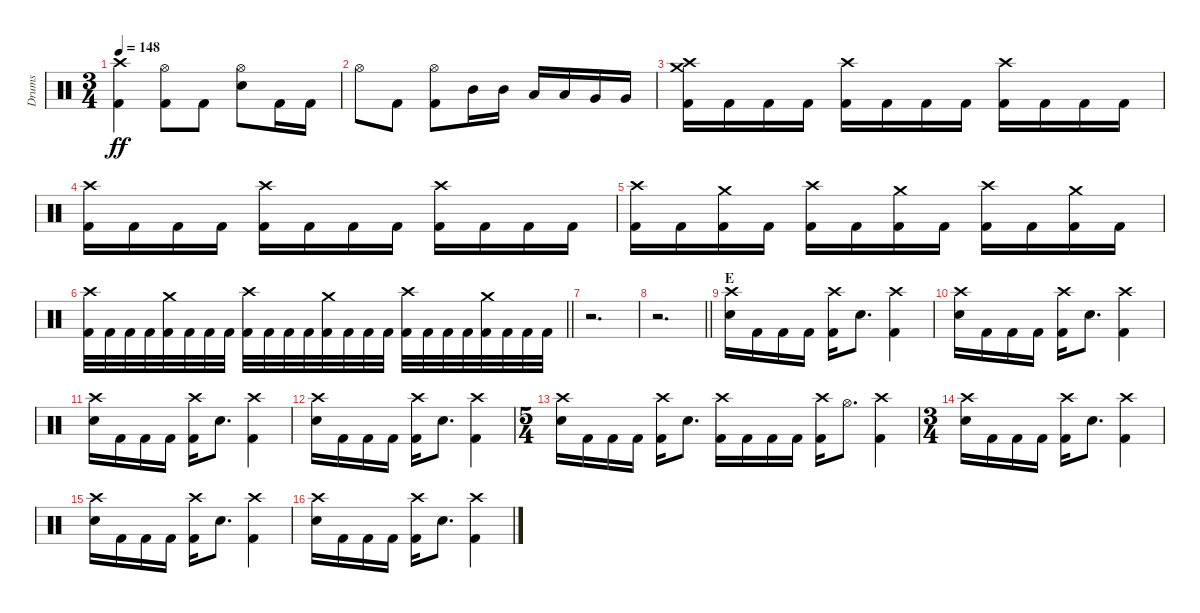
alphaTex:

\track ("Drums" "Drums") {instrument percussion}
\staff {score}
\articulation defaults
\ts (3 4)
\tempo 148
\clef neutral
\ks c
("Crash high (hit)" "Kick (hit) 2").4{dy ff} ("Hi-Hat (open)" "Kick (hit) 2").8 "Kick (hit) 2".8 ("Hi-Hat (open)" "Electric Snare (hit)").8 "Kick (hit) 2".16 "Kick (hit) 2".16 |
"Hi-Hat (open)".8 "Kick (hit) 2".8 ("Hi-Hat (open)" "Kick (hit) 2").8 "Mid Tom (hit)".16 "Mid Tom (hit)".16 "Low Tom (hit)".16 "Low Tom (hit)".16 "Very Low Tom (hit)".16 "Very Low Tom (hit)".16 |
("Crash medium (hit)" "Crash high (hit)" "Kick (hit) 2").16 "Kick (hit) 2".16 "Kick (hit) 2".16 "Kick (hit) 2".16 ("Crash high (hit)" "Kick (hit) 2").16 "Kick (hit) 2".16 "Kick (hit) 2".16 "Kick (hit) 2".16 ("Crash high (hit)" "Kick (hit) 2").16 "Kick (hit) 2".16 "Kick (hit) 2".16 "Kick (hit) 2".16 |
("Crash high (hit)" "Kick (hit) 2").16 "Kick (hit) 2".16 "Kick (hit) 2".16 "Kick (hit) 2".16 ("Crash high (hit)" "Kick (hit) 2").16 "Kick (hit) 2".16 "Kick (hit) 2".16 "Kick (hit) 2".16 ("Crash high (hit)" "Kick (hit) 2").16 "Kick (hit) 2".16 "Kick (hit) 2".16 "Kick (hit) 2".16 |
("Crash high (hit)" "Kick (hit) 2").16 "Kick (hit) 2".16 ("Crash medium (hit)" "Kick (hit) 2").16 "Kick (hit) 2".16 ("Crash high (hit)" "Kick (hit) 2").16 "Kick (hit) 2".16 ("Crash medium (hit)" "Kick (hit) 2").16 "Kick (hit) 2".16 ("Crash high (hit)" "Kick (hit) 2").16 "Kick (hit) 2".16 ("Crash medium (hit)" "Kick (hit) 2").16 "Kick (hit) 2".16 |
\barLineRight lightlight
("Crash high (hit)" "Kick (hit) 2").32 "Kick (hit) 2".32 "Kick (hit) 2".32 "Kick (hit) 2".32 ("Crash medium (hit)" "Kick (hit) 2").32 "Kick (hit) 2".32 "Kick (hit) 2".32 "Kick (hit) 2".32 ("Crash high (hit)" "Kick (hit) 2").32 "Kick (hit) 2".32 "Kick (hit) 2".32 "Kick (hit) 2".32 ("Crash medium (hit)" "Kick (hit) 2").32 "Kick (hit) 2".32 "Kick (hit) 2".32 "Kick (hit) 2".32 ("Crash high (hit)" "Kick (hit) 2").32 "Kick (hit) 2".32 "Kick (hit) 2".32 "Kick (hit) 2".32 ("Crash medium (hit)" "Kick (hit) 2").32 "Kick (hit) 2".32 "Kick (hit) 2".32 "Kick (hit) 2".32 |
\section ("" "")
r.2{d} |
\barLineRight lightlight
r.2{d} |
\section ("" "E")
("Crash high (hit)" "Electric Snare (hit)").16 "Kick (hit) 2".16 "Kick (hit) 2".16 "Kick (hit) 2".16 ("Crash high (hit)" "Kick (hit) 2").16 "Electric Snare (hit)".8{d} ("Crash high (hit)" "Kick (hit) 2").4 |
("Crash high (hit)" "Electric Snare (hit)").16 "Kick (hit) 2".16 "Kick (hit) 2".16 "Kick (hit) 2".16 ("Crash high (hit)" "Kick (hit) 2").16 "Electric Snare (hit)".8{d} ("Crash high (hit)" "Kick (hit) 2").4 |
("Crash high (hit)" "Electric Snare (hit)").16 "Kick (hit) 2".16 "Kick (hit) 2".16 "Kick (hit) 2".16 ("Crash high (hit)" "Kick (hit) 2").16 "Electric Snare (hit)".8{d} ("Crash high (hit)" "Kick (hit) 2").4 |
("Crash high (hit)" "Electric Snare (hit)").16 "Kick (hit) 2".16 "Kick (hit) 2".16 "Kick (hit) 2".16 ("Crash high (hit)" "Kick (hit) 2").16 "Electric Snare (hit)".8{d} ("Crash high (hit)" "Kick (hit) 2").4 |
\ts (5 4)
("Crash high (hit)" "Electric Snare (hit)").16 "Kick (hit) 2".16 "Kick (hit) 2".16 "Kick (hit) 2".16 ("Crash high (hit)" "Kick (hit) 2").16 "Electric Snare (hit)".8{d} ("Crash high (hit)" "Kick (hit) 2").16 "Kick (hit) 2".16 "Kick (hit) 2".16 "Kick (hit) 2".16 ("Crash high (hit)" "Kick (hit) 2").16 "Hi-Hat (open)".8{d} ("Crash high (hit)" "Kick (hit) 2").4 |
\ts (3 4)
("Crash high (hit)" "Electric Snare (hit)").16 "Kick (hit) 2".16 "Kick (hit) 2".16 "Kick (hit) 2".16 ("Crash high (hit)" "Kick (hit) 2").16 "Electric Snare (hit)".8{d} ("Crash high (hit)" "Kick (hit) 2").4 |
("Crash high (hit)" "Electric Snare (hit)").16 "Kick (hit) 2".16 "Kick (hit) 2".16 "Kick (hit) 2".16 ("Crash high (hit)" "Kick (hit) 2").16 "Electric Snare (hit)".8{d} ("Crash high (hit)" "Kick (hit) 2").4 |
("Crash high (hit)" "Electric Snare (hit)").16 "Kick (hit) 2".16 "Kick (hit) 2".16 "Kick (hit) 2".16 ("Crash high (hit)" "Kick (hit) 2").16 "Electric Snare (hit)".8{d} ("Crash high (hit)" "Kick (hit) 2").4
